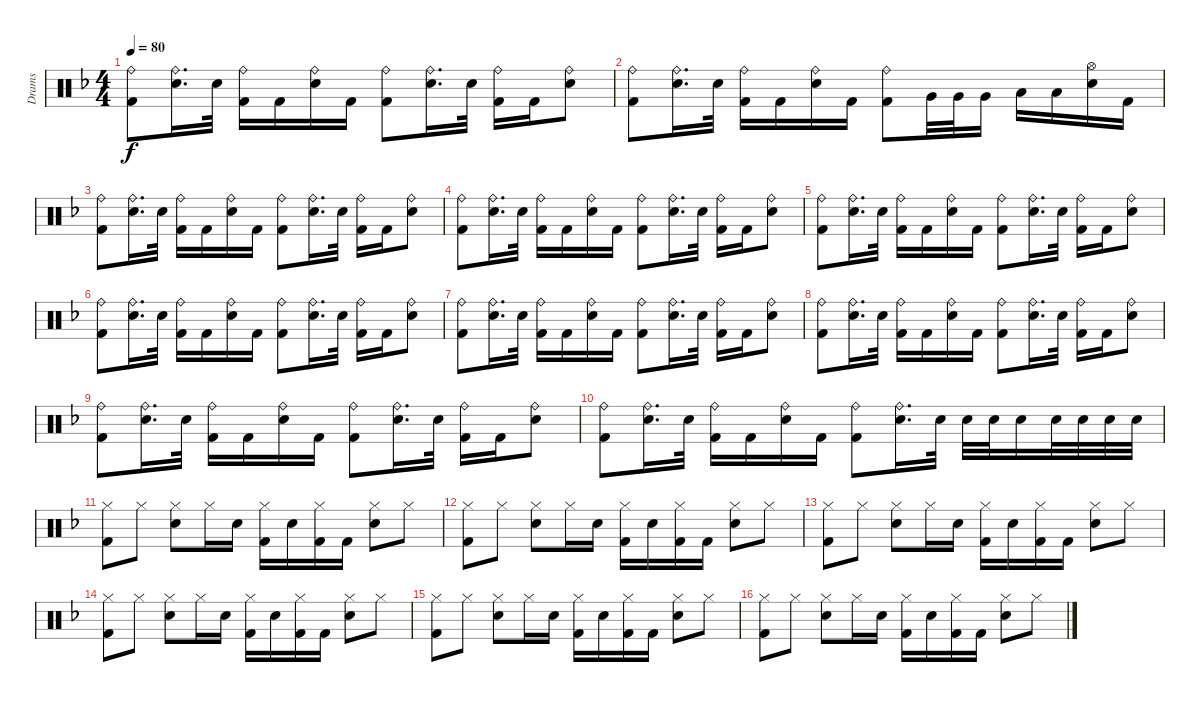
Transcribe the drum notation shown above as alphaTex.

\track ("Drams" "Drams") {instrument percussion}
\staff {score}
\articulation defaults
\ts (4 4)
\tempo 80
\clef neutral
\ks dminor
("Kick (hit) 2" "Ride (bell)").8{dy f} ("Ride (bell)" "Electric Snare (hit)").16{d} "Electric Snare (hit)".32 ("Ride (bell)" "Kick (hit) 2").16 "Kick (hit) 2".16 ("Ride (bell)" "Electric Snare (hit)").16 "Kick (hit) 2".16 ("Kick (hit) 2" "Ride (bell)").8 ("Electric Snare (hit)" "Ride (bell)").16{d} "Electric Snare (hit)".32 ("Kick (hit) 2" "Ride (bell)").16 "Kick (hit) 2".16 ("Electric Snare (hit)" "Ride (bell)").8 |
("Kick (hit) 2" "Ride (bell)").8 ("Ride (bell)" "Electric Snare (hit)").16{d} "Electric Snare (hit)".32 ("Ride (bell)" "Kick (hit) 2").16 "Kick (hit) 2".16 ("Ride (bell)" "Electric Snare (hit)").16 "Kick (hit) 2".16 ("Kick (hit) 2" "Ride (bell)").8 "Very Low Tom (hit)".32 "Very Low Tom (hit)".32 "Very Low Tom (hit)".16 "Low Tom (hit)".16 "Low Tom (hit)".16 ("Electric Snare (hit)" "Hi-Hat (open)").16 "Kick (hit) 2".16 |
("Kick (hit) 2" "Ride (bell)").8 ("Ride (bell)" "Electric Snare (hit)").16{d} "Electric Snare (hit)".32 ("Ride (bell)" "Kick (hit) 2").16 "Kick (hit) 2".16 ("Ride (bell)" "Electric Snare (hit)").16 "Kick (hit) 2".16 ("Kick (hit) 2" "Ride (bell)").8 ("Electric Snare (hit)" "Ride (bell)").16{d} "Electric Snare (hit)".32 ("Kick (hit) 2" "Ride (bell)").16 "Kick (hit) 2".16 ("Electric Snare (hit)" "Ride (bell)").8 |
("Kick (hit) 2" "Ride (bell)").8 ("Ride (bell)" "Electric Snare (hit)").16{d} "Electric Snare (hit)".32 ("Ride (bell)" "Kick (hit) 2").16 "Kick (hit) 2".16 ("Ride (bell)" "Electric Snare (hit)").16 "Kick (hit) 2".16 ("Kick (hit) 2" "Ride (bell)").8 ("Electric Snare (hit)" "Ride (bell)").16{d} "Electric Snare (hit)".32 ("Kick (hit) 2" "Ride (bell)").16 "Kick (hit) 2".16 ("Electric Snare (hit)" "Ride (bell)").8 |
("Kick (hit) 2" "Ride (bell)").8 ("Ride (bell)" "Electric Snare (hit)").16{d} "Electric Snare (hit)".32 ("Ride (bell)" "Kick (hit) 2").16 "Kick (hit) 2".16 ("Ride (bell)" "Electric Snare (hit)").16 "Kick (hit) 2".16 ("Kick (hit) 2" "Ride (bell)").8 ("Electric Snare (hit)" "Ride (bell)").16{d} "Electric Snare (hit)".32 ("Kick (hit) 2" "Ride (bell)").16 "Kick (hit) 2".16 ("Electric Snare (hit)" "Ride (bell)").8 |
("Kick (hit) 2" "Ride (bell)").8 ("Ride (bell)" "Electric Snare (hit)").16{d} "Electric Snare (hit)".32 ("Ride (bell)" "Kick (hit) 2").16 "Kick (hit) 2".16 ("Ride (bell)" "Electric Snare (hit)").16 "Kick (hit) 2".16 ("Kick (hit) 2" "Ride (bell)").8 ("Electric Snare (hit)" "Ride (bell)").16{d} "Electric Snare (hit)".32 ("Kick (hit) 2" "Ride (bell)").16 "Kick (hit) 2".16 ("Electric Snare (hit)" "Ride (bell)").8 |
("Kick (hit) 2" "Ride (bell)").8 ("Ride (bell)" "Electric Snare (hit)").16{d} "Electric Snare (hit)".32 ("Ride (bell)" "Kick (hit) 2").16 "Kick (hit) 2".16 ("Ride (bell)" "Electric Snare (hit)").16 "Kick (hit) 2".16 ("Kick (hit) 2" "Ride (bell)").8 ("Electric Snare (hit)" "Ride (bell)").16{d} "Electric Snare (hit)".32 ("Kick (hit) 2" "Ride (bell)").16 "Kick (hit) 2".16 ("Electric Snare (hit)" "Ride (bell)").8 |
("Kick (hit) 2" "Ride (bell)").8 ("Ride (bell)" "Electric Snare (hit)").16{d} "Electric Snare (hit)".32 ("Ride (bell)" "Kick (hit) 2").16 "Kick (hit) 2".16 ("Ride (bell)" "Electric Snare (hit)").16 "Kick (hit) 2".16 ("Kick (hit) 2" "Ride (bell)").8 ("Electric Snare (hit)" "Ride (bell)").16{d} "Electric Snare (hit)".32 ("Kick (hit) 2" "Ride (bell)").16 "Kick (hit) 2".16 ("Electric Snare (hit)" "Ride (bell)").8 |
("Kick (hit) 2" "Ride (bell)").8 ("Ride (bell)" "Electric Snare (hit)").16{d} "Electric Snare (hit)".32 ("Ride (bell)" "Kick (hit) 2").16 "Kick (hit) 2".16 ("Ride (bell)" "Electric Snare (hit)").16 "Kick (hit) 2".16 ("Kick (hit) 2" "Ride (bell)").8 ("Electric Snare (hit)" "Ride (bell)").16{d} "Electric Snare (hit)".32 ("Kick (hit) 2" "Ride (bell)").16 "Kick (hit) 2".16 ("Electric Snare (hit)" "Ride (bell)").8 |
("Kick (hit) 2" "Ride (bell)").8 ("Ride (bell)" "Electric Snare (hit)").16{d} "Electric Snare (hit)".32 ("Ride (bell)" "Kick (hit) 2").16 "Kick (hit) 2".16 ("Ride (bell)" "Electric Snare (hit)").16 "Kick (hit) 2".16 ("Kick (hit) 2" "Ride (bell)").8 ("Electric Snare (hit)" "Ride (bell)").16{d} "Electric Snare (hit)".32 "Electric Snare (hit)".32 "Electric Snare (hit)".32 "Electric Snare (hit)".16 "Electric Snare (hit)".32 "Electric Snare (hit)".32 "Electric Snare (hit)".32 "Electric Snare (hit)".32 |
("Kick (hit) 2" "Hi-Hat (closed)").8 "Hi-Hat (closed)".8 ("Electric Snare (hit)" "Hi-Hat (closed)").8 "Hi-Hat (closed)".16 "Electric Snare (hit)".16 ("Kick (hit) 2" "Hi-Hat (closed)").16 "Electric Snare (hit)".16 ("Kick (hit) 2" "Hi-Hat (closed)").16 "Kick (hit) 2".16 ("Electric Snare (hit)" "Hi-Hat (closed)").8 "Hi-Hat (closed)".8 |
("Kick (hit) 2" "Hi-Hat (closed)").8 "Hi-Hat (closed)".8 ("Electric Snare (hit)" "Hi-Hat (closed)").8 "Hi-Hat (closed)".16 "Electric Snare (hit)".16 ("Kick (hit) 2" "Hi-Hat (closed)").16 "Electric Snare (hit)".16 ("Kick (hit) 2" "Hi-Hat (closed)").16 "Kick (hit) 2".16 ("Electric Snare (hit)" "Hi-Hat (closed)").8 "Hi-Hat (closed)".8 |
("Kick (hit) 2" "Hi-Hat (closed)").8 "Hi-Hat (closed)".8 ("Electric Snare (hit)" "Hi-Hat (closed)").8 "Hi-Hat (closed)".16 "Electric Snare (hit)".16 ("Kick (hit) 2" "Hi-Hat (closed)").16 "Electric Snare (hit)".16 ("Kick (hit) 2" "Hi-Hat (closed)").16 "Kick (hit) 2".16 ("Electric Snare (hit)" "Hi-Hat (closed)").8 "Hi-Hat (closed)".8 |
("Kick (hit) 2" "Hi-Hat (closed)").8 "Hi-Hat (closed)".8 ("Electric Snare (hit)" "Hi-Hat (closed)").8 "Hi-Hat (closed)".16 "Electric Snare (hit)".16 ("Kick (hit) 2" "Hi-Hat (closed)").16 "Electric Snare (hit)".16 ("Kick (hit) 2" "Hi-Hat (closed)").16 "Kick (hit) 2".16 ("Electric Snare (hit)" "Hi-Hat (closed)").8 "Hi-Hat (closed)".8 |
("Kick (hit) 2" "Hi-Hat (closed)").8 "Hi-Hat (closed)".8 ("Electric Snare (hit)" "Hi-Hat (closed)").8 "Hi-Hat (closed)".16 "Electric Snare (hit)".16 ("Kick (hit) 2" "Hi-Hat (closed)").16 "Electric Snare (hit)".16 ("Kick (hit) 2" "Hi-Hat (closed)").16 "Kick (hit) 2".16 ("Electric Snare (hit)" "Hi-Hat (closed)").8 "Hi-Hat (closed)".8 |
("Kick (hit) 2" "Hi-Hat (closed)").8 "Hi-Hat (closed)".8 ("Electric Snare (hit)" "Hi-Hat (closed)").8 "Hi-Hat (closed)".16 "Electric Snare (hit)".16 ("Kick (hit) 2" "Hi-Hat (closed)").16 "Electric Snare (hit)".16 ("Kick (hit) 2" "Hi-Hat (closed)").16 "Kick (hit) 2".16 ("Electric Snare (hit)" "Hi-Hat (closed)").8 "Hi-Hat (closed)".8
